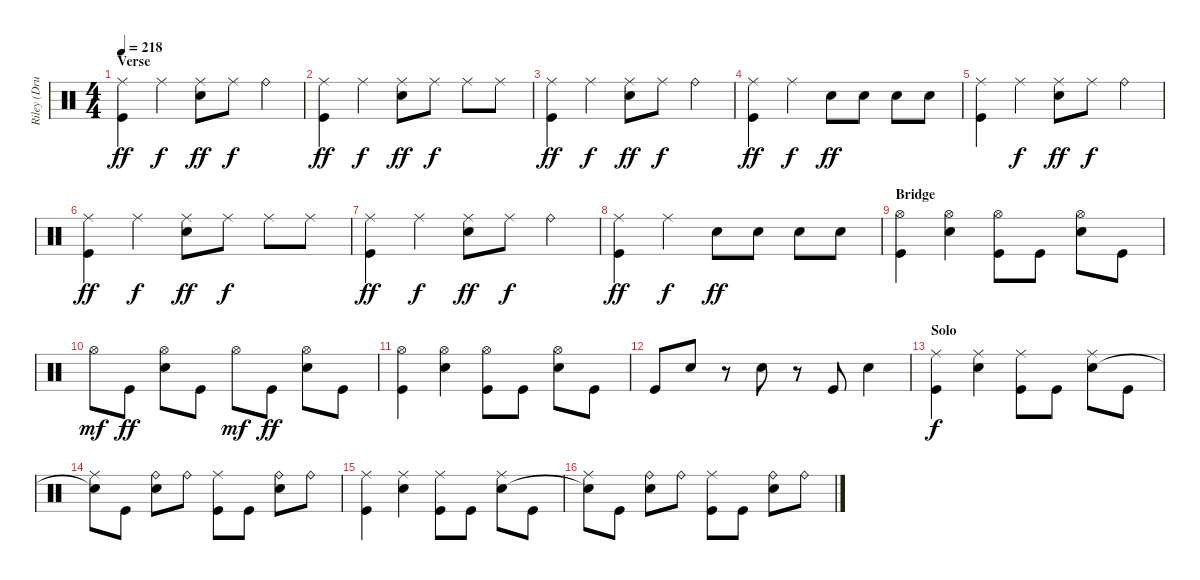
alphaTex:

\track ("Riley (Drums)" "Riley (Dru") {instrument percussion}
\staff {score}
\articulation defaults
\ts (4 4)
\section ("" "Verse")
\tempo 218
\clef neutral
\ks c
("Ride (middle)" "Kick (hit)").4{dy ff} "Ride (middle)".4{dy f} ("Ride (middle)" "Electric Snare (hit)").8{dy ff} "Ride (middle)".8{dy f} "Ride (bell)".4 |
("Ride (middle)" "Kick (hit)").4{dy ff} "Ride (middle)".4{dy f} ("Ride (middle)" "Electric Snare (hit)").8{dy ff} "Ride (middle)".8{dy f} "Ride (middle)".8 "Ride (middle)".8 |
("Ride (middle)" "Kick (hit)").4{dy ff} "Ride (middle)".4{dy f} ("Ride (middle)" "Electric Snare (hit)").8{dy ff} "Ride (middle)".8{dy f} "Ride (bell)".4 |
("Ride (middle)" "Kick (hit)").4{dy ff} "Ride (middle)".4{dy f} "Electric Snare (hit)".8{dy ff} "Electric Snare (hit)".8 "Electric Snare (hit)".8 "Electric Snare (hit)".8 |
("Ride (middle)" "Kick (hit)").4 "Ride (middle)".4{dy f} ("Ride (middle)" "Electric Snare (hit)").8{dy ff} "Ride (middle)".8{dy f} "Ride (bell)".4 |
("Ride (middle)" "Kick (hit)").4{dy ff} "Ride (middle)".4{dy f} ("Ride (middle)" "Electric Snare (hit)").8{dy ff} "Ride (middle)".8{dy f} "Ride (middle)".8 "Ride (middle)".8 |
("Ride (middle)" "Kick (hit)").4{dy ff} "Ride (middle)".4{dy f} ("Ride (middle)" "Electric Snare (hit)").8{dy ff} "Ride (middle)".8{dy f} "Ride (bell)".4 |
("Ride (middle)" "Kick (hit)").4{dy ff} "Ride (middle)".4{dy f} "Electric Snare (hit)".8{dy ff} "Electric Snare (hit)".8 "Electric Snare (hit)".8 "Electric Snare (hit)".8 |
\section ("" "Bridge")
("Hi-Hat (open)" "Kick (hit)").4 ("Hi-Hat (open)" "Electric Snare (hit)").4 ("Hi-Hat (open)" "Kick (hit)").8 "Kick (hit)".8 ("Hi-Hat (open)" "Electric Snare (hit)").8 "Kick (hit)".8 |
"Hi-Hat (open)".8{dy mf} "Kick (hit)".8{dy ff} ("Hi-Hat (open)" "Electric Snare (hit)").8 "Kick (hit)".8 "Hi-Hat (open)".8{dy mf} "Kick (hit)".8{dy ff} ("Hi-Hat (open)" "Electric Snare (hit)").8 "Kick (hit)".8 |
("Hi-Hat (open)" "Kick (hit)").4 ("Hi-Hat (open)" "Electric Snare (hit)").4 ("Hi-Hat (open)" "Kick (hit)").8 "Kick (hit)".8 ("Hi-Hat (open)" "Electric Snare (hit)").8 "Kick (hit)".8 |
"Kick (hit)".8 "Electric Snare (hit)".8 r.8 "Electric Snare (hit)".8 r.8 "Kick (hit)".8 "Electric Snare (hit)".4 |
\section ("" "Solo")
("Ride (middle)" "Kick (hit)").4{dy f} ("Ride (middle)" "Electric Snare (hit)").4 ("Ride (middle)" "Kick (hit)").8 "Kick (hit)".8 ("Ride (middle)" "Electric Snare (hit)").8 "Kick (hit)".8 |
("Ride (middle)" "Snare (hit)"{t}).8 "Kick (hit)".8 ("Ride (bell)" "Electric Snare (hit)").8 "Ride (bell)".8 ("Ride (middle)" "Kick (hit)").8 "Kick (hit)".8 ("Ride (bell)" "Electric Snare (hit)").8 "Ride (bell)".8 |
("Ride (middle)" "Kick (hit)").4 ("Ride (middle)" "Electric Snare (hit)").4 ("Ride (middle)" "Kick (hit)").8 "Kick (hit)".8 ("Ride (middle)" "Electric Snare (hit)").8 "Kick (hit)".8 |
("Ride (middle)" "Snare (hit)"{t}).8 "Kick (hit)".8 ("Ride (bell)" "Electric Snare (hit)").8 "Ride (bell)".8 ("Ride (middle)" "Kick (hit)").8 "Kick (hit)".8 ("Ride (bell)" "Electric Snare (hit)").8 "Ride (bell)".8
